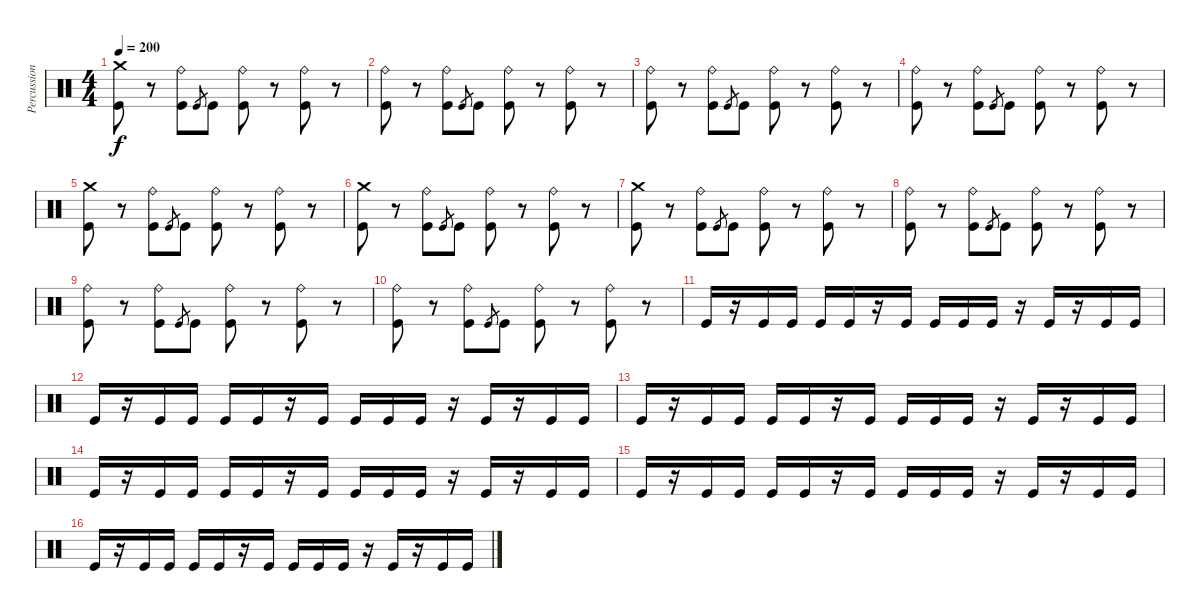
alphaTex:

\track ("Percussion" "Percussion") {instrument percussion}
\staff {score}
\articulation defaults
\ts (4 4)
\tempo 200
\clef neutral
\ks c
("Crash medium (hit)" "Kick (hit)").8{dy f} r.8 ("Ride (bell)" "Kick (hit)").8 "Kick (hit)".8{gr} "Kick (hit)".8 ("Ride (bell)" "Kick (hit)").8 r.8 ("Ride (bell)" "Kick (hit)").8 r.8 |
("Ride (bell)" "Kick (hit)").8 r.8 ("Ride (bell)" "Kick (hit)").8 "Kick (hit)".8{gr} "Kick (hit)".8 ("Ride (bell)" "Kick (hit)").8 r.8 ("Ride (bell)" "Kick (hit)").8 r.8 |
("Ride (bell)" "Kick (hit)").8 r.8 ("Ride (bell)" "Kick (hit)").8 "Kick (hit)".8{gr} "Kick (hit)".8 ("Ride (bell)" "Kick (hit)").8 r.8 ("Ride (bell)" "Kick (hit)").8 r.8 |
("Ride (bell)" "Kick (hit)").8 r.8 ("Ride (bell)" "Kick (hit)").8 "Kick (hit)".8{gr} "Kick (hit)".8 ("Ride (bell)" "Kick (hit)").8 r.8 ("Ride (bell)" "Kick (hit)").8 r.8 |
("Crash medium (hit)" "Kick (hit)").8 r.8 ("Ride (bell)" "Kick (hit)").8 "Kick (hit)".8{gr} "Kick (hit)".8 ("Ride (bell)" "Kick (hit)").8 r.8 ("Ride (bell)" "Kick (hit)").8 r.8 |
("Crash medium (hit)" "Kick (hit)").8 r.8 ("Ride (bell)" "Kick (hit)").8 "Kick (hit)".8{gr} "Kick (hit)".8 ("Ride (bell)" "Kick (hit)").8 r.8 ("Ride (bell)" "Kick (hit)").8 r.8 |
("Crash medium (hit)" "Kick (hit)").8 r.8 ("Ride (bell)" "Kick (hit)").8 "Kick (hit)".8{gr} "Kick (hit)".8 ("Ride (bell)" "Kick (hit)").8 r.8 ("Ride (bell)" "Kick (hit)").8 r.8 |
("Ride (bell)" "Kick (hit)").8 r.8 ("Ride (bell)" "Kick (hit)").8 "Kick (hit)".8{gr} "Kick (hit)".8 ("Ride (bell)" "Kick (hit)").8 r.8 ("Ride (bell)" "Kick (hit)").8 r.8 |
("Ride (bell)" "Kick (hit)").8 r.8 ("Ride (bell)" "Kick (hit)").8 "Kick (hit)".8{gr} "Kick (hit)".8 ("Ride (bell)" "Kick (hit)").8 r.8 ("Ride (bell)" "Kick (hit)").8 r.8 |
("Ride (bell)" "Kick (hit)").8 r.8 ("Ride (bell)" "Kick (hit)").8 "Kick (hit)".8{gr} "Kick (hit)".8 ("Ride (bell)" "Kick (hit)").8 r.8 ("Ride (bell)" "Kick (hit)").8 r.8 |
"Kick (hit)".16 r.16 "Kick (hit)".16 "Kick (hit)".16 "Kick (hit)".16 "Kick (hit)".16 r.16 "Kick (hit)".16 "Kick (hit)".16 "Kick (hit)".16 "Kick (hit)".16 r.16 "Kick (hit)".16 r.16 "Kick (hit)".16 "Kick (hit)".16 |
"Kick (hit)".16 r.16 "Kick (hit)".16 "Kick (hit)".16 "Kick (hit)".16 "Kick (hit)".16 r.16 "Kick (hit)".16 "Kick (hit)".16 "Kick (hit)".16 "Kick (hit)".16 r.16 "Kick (hit)".16 r.16 "Kick (hit)".16 "Kick (hit)".16 |
"Kick (hit)".16 r.16 "Kick (hit)".16 "Kick (hit)".16 "Kick (hit)".16 "Kick (hit)".16 r.16 "Kick (hit)".16 "Kick (hit)".16 "Kick (hit)".16 "Kick (hit)".16 r.16 "Kick (hit)".16 r.16 "Kick (hit)".16 "Kick (hit)".16 |
"Kick (hit)".16 r.16 "Kick (hit)".16 "Kick (hit)".16 "Kick (hit)".16 "Kick (hit)".16 r.16 "Kick (hit)".16 "Kick (hit)".16 "Kick (hit)".16 "Kick (hit)".16 r.16 "Kick (hit)".16 r.16 "Kick (hit)".16 "Kick (hit)".16 |
"Kick (hit)".16 r.16 "Kick (hit)".16 "Kick (hit)".16 "Kick (hit)".16 "Kick (hit)".16 r.16 "Kick (hit)".16 "Kick (hit)".16 "Kick (hit)".16 "Kick (hit)".16 r.16 "Kick (hit)".16 r.16 "Kick (hit)".16 "Kick (hit)".16 |
"Kick (hit)".16 r.16 "Kick (hit)".16 "Kick (hit)".16 "Kick (hit)".16 "Kick (hit)".16 r.16 "Kick (hit)".16 "Kick (hit)".16 "Kick (hit)".16 "Kick (hit)".16 r.16 "Kick (hit)".16 r.16 "Kick (hit)".16 "Kick (hit)".16
